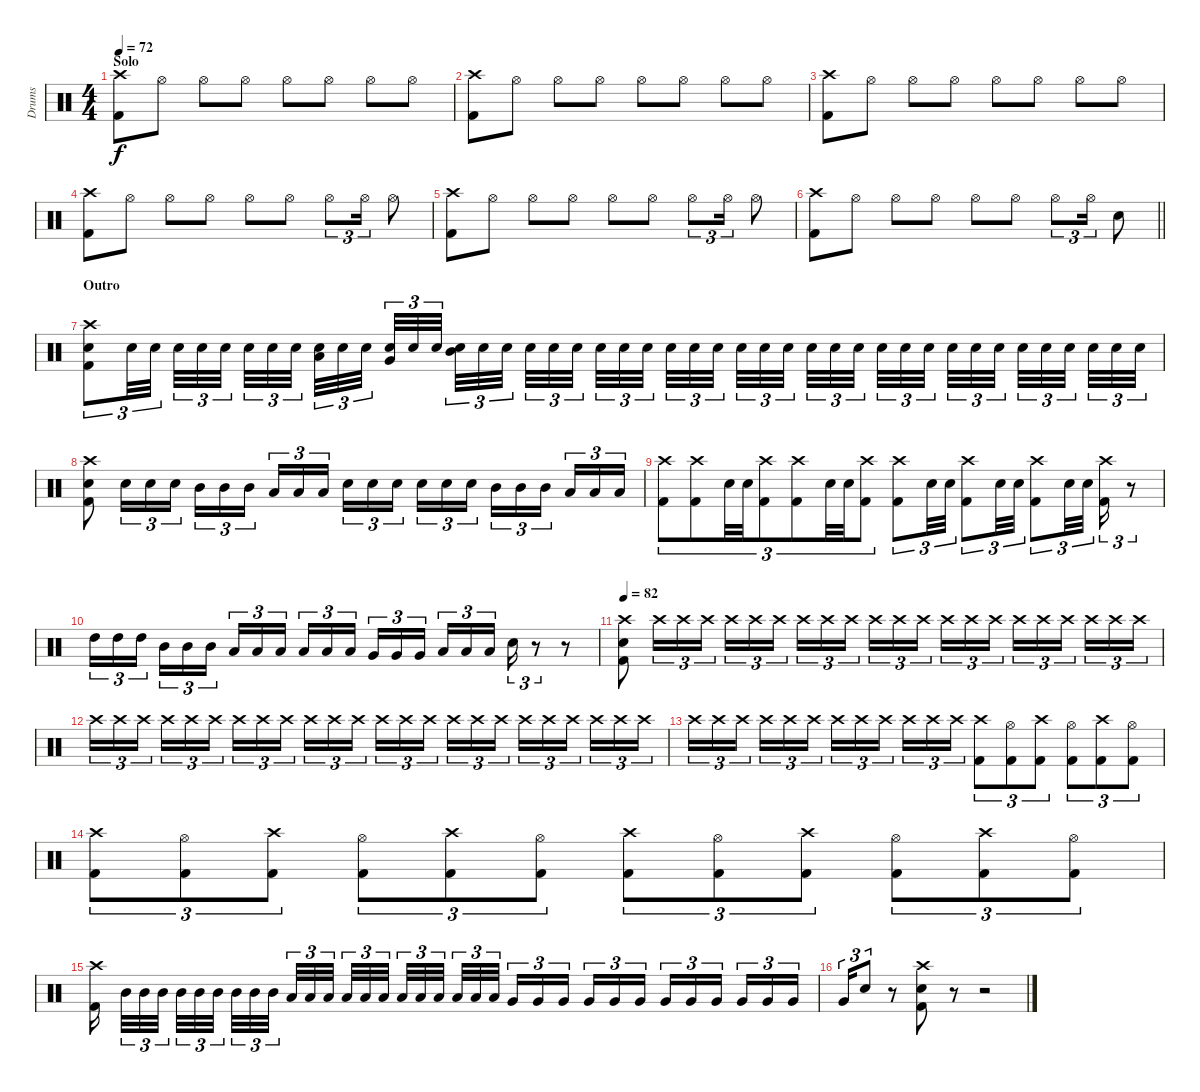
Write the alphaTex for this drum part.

\track ("Drums" "Drums") {instrument percussion}
\staff {score}
\articulation defaults
\ts (4 4)
\section ("" "Solo")
\tempo 72
\clef neutral
\ks c
("Crash high (hit)" "Kick (hit) 2").8{dy f} "Hi-Hat (open)".8 "Hi-Hat (open)".8 "Hi-Hat (open)".8 "Hi-Hat (open)".8 "Hi-Hat (open)".8 "Hi-Hat (open)".8 "Hi-Hat (open)".8 |
("Crash high (hit)" "Kick (hit) 2").8 "Hi-Hat (open)".8 "Hi-Hat (open)".8 "Hi-Hat (open)".8 "Hi-Hat (open)".8 "Hi-Hat (open)".8 "Hi-Hat (open)".8 "Hi-Hat (open)".8 |
("Crash high (hit)" "Kick (hit) 2").8 "Hi-Hat (open)".8 "Hi-Hat (open)".8 "Hi-Hat (open)".8 "Hi-Hat (open)".8 "Hi-Hat (open)".8 "Hi-Hat (open)".8 "Hi-Hat (open)".8 |
("Crash high (hit)" "Kick (hit) 2").8 "Hi-Hat (open)".8 "Hi-Hat (open)".8 "Hi-Hat (open)".8 "Hi-Hat (open)".8 "Hi-Hat (open)".8 "Hi-Hat (open)".8{tu (3 2)} "Hi-Hat (open)".16{tu (3 2)} "Hi-Hat (open)".8 |
("Crash high (hit)" "Kick (hit) 2").8 "Hi-Hat (open)".8 "Hi-Hat (open)".8 "Hi-Hat (open)".8 "Hi-Hat (open)".8 "Hi-Hat (open)".8 "Hi-Hat (open)".8{tu (3 2)} "Hi-Hat (open)".16{tu (3 2)} "Hi-Hat (open)".8 |
\barLineRight lightlight
("Crash high (hit)" "Kick (hit) 2").8 "Hi-Hat (open)".8 "Hi-Hat (open)".8 "Hi-Hat (open)".8 "Hi-Hat (open)".8 "Hi-Hat (open)".8 "Hi-Hat (open)".8{tu (3 2)} "Hi-Hat (open)".16{tu (3 2)} "Snare (hit) 2".8 |
\section ("" "Outro")
("Crash high (hit)" "Snare (hit) 2" "Kick (hit) 2").8{tu (3 2)} "Snare (hit) 2".32{tu (3 2)} "Snare (hit) 2".32{tu (3 2) beam splitsecondary} "Snare (hit) 2".32{tu (3 2)} "Snare (hit) 2".32{tu (3 2)} "Snare (hit) 2".32{tu (3 2) beam splitsecondary} "Snare (hit) 2".32{tu (3 2)} "Snare (hit) 2".32{tu (3 2)} "Snare (hit) 2".32{tu (3 2)} ("Low Tom (hit)" "Snare (hit) 2").32{tu (3 2)} "Snare (hit) 2".32{tu (3 2)} "Snare (hit) 2".32{tu (3 2) beam splitsecondary} ("Very Low Tom (hit)" "Snare (hit) 2").32{tu (3 2)} "Snare (hit) 2".32{tu (3 2)} "Snare (hit) 2".32{tu (3 2) beam splitsecondary} ("Mid Tom (hit)" "Snare (hit) 2").32{tu (3 2)} "Snare (hit) 2".32{tu (3 2)} "Snare (hit) 2".32{tu (3 2) beam splitsecondary} "Snare (hit) 2".32{tu (3 2)} "Snare (hit) 2".32{tu (3 2)} "Snare (hit) 2".32{tu (3 2)} "Snare (hit) 2".32{tu (3 2)} "Snare (hit) 2".32{tu (3 2)} "Snare (hit) 2".32{tu (3 2) beam splitsecondary} "Snare (hit) 2".32{tu (3 2)} "Snare (hit) 2".32{tu (3 2)} "Snare (hit) 2".32{tu (3 2) beam splitsecondary} "Snare (hit) 2".32{tu (3 2)} "Snare (hit) 2".32{tu (3 2)} "Snare (hit) 2".32{tu (3 2) beam splitsecondary} "Snare (hit) 2".32{tu (3 2)} "Snare (hit) 2".32{tu (3 2)} "Snare (hit) 2".32{tu (3 2)} "Snare (hit) 2".32{tu (3 2)} "Snare (hit) 2".32{tu (3 2)} "Snare (hit) 2".32{tu (3 2) beam splitsecondary} "Snare (hit) 2".32{tu (3 2)} "Snare (hit) 2".32{tu (3 2)} "Snare (hit) 2".32{tu (3 2) beam splitsecondary} "Snare (hit) 2".32{tu (3 2)} "Snare (hit) 2".32{tu (3 2)} "Snare (hit) 2".32{tu (3 2) beam splitsecondary} "Snare (hit) 2".32{tu (3 2)} "Snare (hit) 2".32{tu (3 2)} "Snare (hit) 2".32{tu (3 2)} |
("Crash high (hit)" "Snare (hit) 2" "Kick (hit) 2").8 "Snare (hit) 2".16{tu (3 2)} "Snare (hit) 2".16{tu (3 2)} "Snare (hit) 2".16{tu (3 2)} "Mid Tom (hit)".16{tu (3 2)} "Mid Tom (hit)".16{tu (3 2)} "Mid Tom (hit)".16{tu (3 2) beam splitsecondary} "Low Tom (hit)".16{tu (3 2)} "Low Tom (hit)".16{tu (3 2)} "Low Tom (hit)".16{tu (3 2)} "Snare (hit) 2".16{tu (3 2)} "Snare (hit) 2".16{tu (3 2)} "Snare (hit) 2".16{tu (3 2) beam splitsecondary} "Snare (hit) 2".16{tu (3 2)} "Snare (hit) 2".16{tu (3 2)} "Snare (hit) 2".16{tu (3 2)} "Mid Tom (hit)".16{tu (3 2)} "Mid Tom (hit)".16{tu (3 2)} "Mid Tom (hit)".16{tu (3 2) beam splitsecondary} "Low Tom (hit)".16{tu (3 2)} "Low Tom (hit)".16{tu (3 2)} "Low Tom (hit)".16{tu (3 2)} |
("Crash high (hit)" "Kick (hit) 2").8{tu (3 2)} ("Crash high (hit)" "Kick (hit) 2").8{tu (3 2)} "Snare (hit) 2".32{tu (3 2)} "Snare (hit) 2".32{tu (3 2)} ("Crash high (hit)" "Kick (hit) 2").8{tu (3 2)} ("Crash high (hit)" "Kick (hit) 2").8{tu (3 2)} "Snare (hit) 2".32{tu (3 2)} "Snare (hit) 2".32{tu (3 2)} ("Crash high (hit)" "Kick (hit) 2").8{tu (3 2)} ("Crash high (hit)" "Kick (hit) 2").8{tu (3 2)} "Snare (hit) 2".32{tu (3 2)} "Snare (hit) 2".32{tu (3 2)} ("Crash high (hit)" "Kick (hit) 2").8{tu (3 2)} "Snare (hit) 2".32{tu (3 2)} "Snare (hit) 2".32{tu (3 2)} ("Crash high (hit)" "Kick (hit) 2").8{tu (3 2)} "Snare (hit) 2".32{tu (3 2)} "Snare (hit) 2".32{tu (3 2) beam splitsecondary} ("Crash high (hit)" "Kick (hit) 2").16{tu (3 2)} r.8{tu (3 2)} |
"High Tom (hit)".16{tu (3 2)} "High Tom (hit)".16{tu (3 2)} "High Tom (hit)".16{tu (3 2) beam splitsecondary} "Mid Tom (hit)".16{tu (3 2)} "Mid Tom (hit)".16{tu (3 2)} "Mid Tom (hit)".16{tu (3 2)} "Low Tom (hit)".16{tu (3 2)} "Low Tom (hit)".16{tu (3 2)} "Low Tom (hit)".16{tu (3 2) beam splitsecondary} "Low Tom (hit)".16{tu (3 2)} "Low Tom (hit)".16{tu (3 2)} "Low Tom (hit)".16{tu (3 2)} "Very Low Tom (hit)".16{tu (3 2)} "Very Low Tom (hit)".16{tu (3 2)} "Very Low Tom (hit)".16{tu (3 2) beam splitsecondary} "Low Floor Tom (hit)".16{tu (3 2)} "Low Floor Tom (hit)".16{tu (3 2)} "Low Floor Tom (hit)".16{tu (3 2)} "Snare (hit) 2".16{tu (3 2)} r.8{tu (3 2)} r.8 |
\tempo 82
("Crash high (hit)" "Snare (hit) 2" "Kick (hit) 2").8 "Crash high (hit)".16{tu (3 2)} "Crash high (hit)".16{tu (3 2)} "Crash high (hit)".16{tu (3 2)} "Crash high (hit)".16{tu (3 2)} "Crash high (hit)".16{tu (3 2)} "Crash high (hit)".16{tu (3 2) beam splitsecondary} "Crash high (hit)".16{tu (3 2)} "Crash high (hit)".16{tu (3 2)} "Crash high (hit)".16{tu (3 2)} "Crash high (hit)".16{tu (3 2)} "Crash high (hit)".16{tu (3 2)} "Crash high (hit)".16{tu (3 2) beam splitsecondary} "Crash high (hit)".16{tu (3 2)} "Crash high (hit)".16{tu (3 2)} "Crash high (hit)".16{tu (3 2)} "Crash high (hit)".16{tu (3 2)} "Crash high (hit)".16{tu (3 2)} "Crash high (hit)".16{tu (3 2) beam splitsecondary} "Crash high (hit)".16{tu (3 2)} "Crash high (hit)".16{tu (3 2)} "Crash high (hit)".16{tu (3 2)} |
"Crash high (hit)".16{tu (3 2)} "Crash high (hit)".16{tu (3 2)} "Crash high (hit)".16{tu (3 2) beam splitsecondary} "Crash high (hit)".16{tu (3 2)} "Crash high (hit)".16{tu (3 2)} "Crash high (hit)".16{tu (3 2)} "Crash high (hit)".16{tu (3 2)} "Crash high (hit)".16{tu (3 2)} "Crash high (hit)".16{tu (3 2) beam splitsecondary} "Crash high (hit)".16{tu (3 2)} "Crash high (hit)".16{tu (3 2)} "Crash high (hit)".16{tu (3 2)} "Crash high (hit)".16{tu (3 2)} "Crash high (hit)".16{tu (3 2)} "Crash high (hit)".16{tu (3 2) beam splitsecondary} "Crash high (hit)".16{tu (3 2)} "Crash high (hit)".16{tu (3 2)} "Crash high (hit)".16{tu (3 2)} "Crash high (hit)".16{tu (3 2)} "Crash high (hit)".16{tu (3 2)} "Crash high (hit)".16{tu (3 2) beam splitsecondary} "Crash high (hit)".16{tu (3 2)} "Crash high (hit)".16{tu (3 2)} "Crash high (hit)".16{tu (3 2)} |
"Crash high (hit)".16{tu (3 2)} "Crash high (hit)".16{tu (3 2)} "Crash high (hit)".16{tu (3 2) beam splitsecondary} "Crash high (hit)".16{tu (3 2)} "Crash high (hit)".16{tu (3 2)} "Crash high (hit)".16{tu (3 2)} "Crash high (hit)".16{tu (3 2)} "Crash high (hit)".16{tu (3 2)} "Crash high (hit)".16{tu (3 2) beam splitsecondary} "Crash high (hit)".16{tu (3 2)} "Crash high (hit)".16{tu (3 2)} "Crash high (hit)".16{tu (3 2)} ("Crash high (hit)" "Kick (hit) 2").8{tu (3 2)} ("Hi-Hat (open)" "Kick (hit) 2").8{tu (3 2)} ("Crash high (hit)" "Kick (hit) 2").8{tu (3 2)} ("Hi-Hat (open)" "Kick (hit) 2").8{tu (3 2)} ("Crash high (hit)" "Kick (hit) 2").8{tu (3 2)} ("Hi-Hat (open)" "Kick (hit) 2").8{tu (3 2)} |
("Crash high (hit)" "Kick (hit) 2").8{tu (3 2)} ("Hi-Hat (open)" "Kick (hit) 2").8{tu (3 2)} ("Crash high (hit)" "Kick (hit) 2").8{tu (3 2)} ("Hi-Hat (open)" "Kick (hit) 2").8{tu (3 2)} ("Crash high (hit)" "Kick (hit) 2").8{tu (3 2)} ("Hi-Hat (open)" "Kick (hit) 2").8{tu (3 2)} ("Crash high (hit)" "Kick (hit) 2").8{tu (3 2)} ("Hi-Hat (open)" "Kick (hit) 2").8{tu (3 2)} ("Crash high (hit)" "Kick (hit) 2").8{tu (3 2)} ("Hi-Hat (open)" "Kick (hit) 2").8{tu (3 2)} ("Crash high (hit)" "Kick (hit) 2").8{tu (3 2)} ("Hi-Hat (open)" "Kick (hit) 2").8{tu (3 2)} |
("Crash high (hit)" "Kick (hit) 2").16{beam splitsecondary} "Mid Tom (hit)".32{tu (3 2)} "Mid Tom (hit)".32{tu (3 2)} "Mid Tom (hit)".32{tu (3 2) beam splitsecondary} "Mid Tom (hit)".32{tu (3 2)} "Mid Tom (hit)".32{tu (3 2)} "Mid Tom (hit)".32{tu (3 2) beam splitsecondary} "Mid Tom (hit)".32{tu (3 2)} "Mid Tom (hit)".32{tu (3 2)} "Mid Tom (hit)".32{tu (3 2)} "Low Tom (hit)".32{tu (3 2)} "Low Tom (hit)".32{tu (3 2)} "Low Tom (hit)".32{tu (3 2) beam splitsecondary} "Low Tom (hit)".32{tu (3 2)} "Low Tom (hit)".32{tu (3 2)} "Low Tom (hit)".32{tu (3 2) beam splitsecondary} "Low Tom (hit)".32{tu (3 2)} "Low Tom (hit)".32{tu (3 2)} "Low Tom (hit)".32{tu (3 2) beam splitsecondary} "Low Tom (hit)".32{tu (3 2)} "Low Tom (hit)".32{tu (3 2)} "Low Tom (hit)".32{tu (3 2)} "Very Low Tom (hit)".16{tu (3 2)} "Very Low Tom (hit)".16{tu (3 2)} "Very Low Tom (hit)".16{tu (3 2) beam splitsecondary} "Very Low Tom (hit)".16{tu (3 2)} "Very Low Tom (hit)".16{tu (3 2)} "Very Low Tom (hit)".16{tu (3 2)} "Very Low Tom (hit)".16{tu (3 2)} "Very Low Tom (hit)".16{tu (3 2)} "Very Low Tom (hit)".16{tu (3 2) beam splitsecondary} "Very Low Tom (hit)".16{tu (3 2)} "Very Low Tom (hit)".16{tu (3 2)} "Very Low Tom (hit)".16{tu (3 2)} |
"Very Low Tom (hit)".16{tu (3 2)} "Snare (hit) 2".8{tu (3 2)} r.8 ("Crash high (hit)" "Snare (hit) 2" "Kick (hit) 2").8 r.8 r.2
